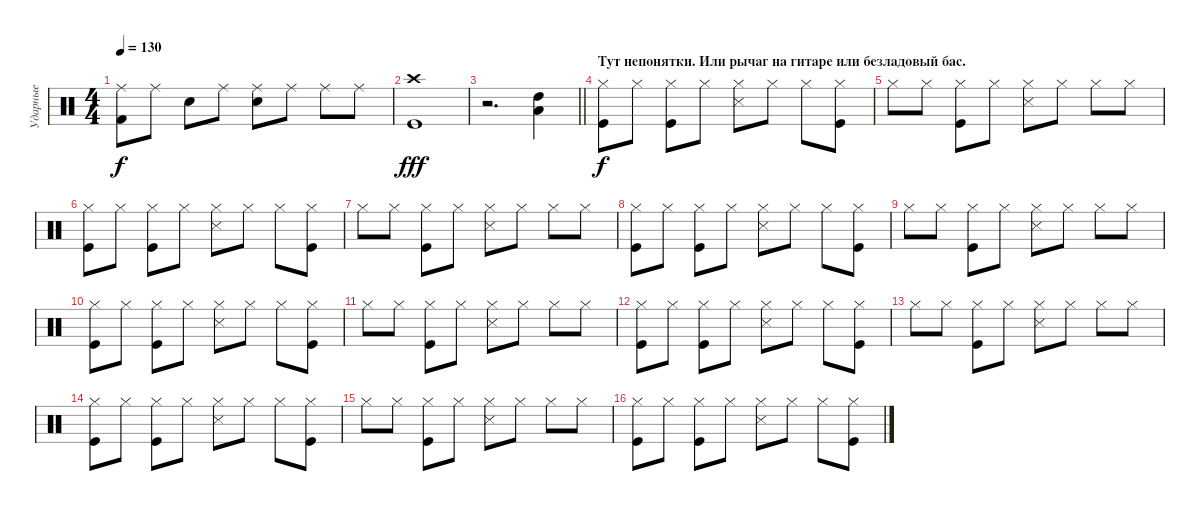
\track ("Ударные" "Ударные") {instrument percussion}
\staff {score}
\articulation defaults
\ts (4 4)
\tempo 130
\clef neutral
\ks c
("Ride (middle)" "Kick (hit) 2").8{dy f} "Ride (middle)".8 "Snare (hit)".8 "Ride (middle)".8 ("Ride (middle)" "Electric Snare (hit)").8 "Ride (middle)".8 "Ride (middle)".8 "Ride (middle)".8 |
("Crash high (hit)" "Kick (hit)").1{dy fff} |
\barLineRight lightlight
r.2{d} ("High Tom (hit)" "Low Tom (hit)").4 |
\section ("" "Тут непонятки. Или рычаг на гитаре или безладовый бас. ")
("Hi-Hat (closed)" "Kick (hit)").8{dy f} "Hi-Hat (closed)".8 ("Hi-Hat (closed)" "Kick (hit)").8 "Hi-Hat (closed)".8 ("Hi-Hat (closed)" "Snare (side stick) 3").8 "Hi-Hat (closed)".8 "Hi-Hat (closed)".8 ("Hi-Hat (closed)" "Kick (hit)").8 |
"Hi-Hat (closed)".8 "Hi-Hat (closed)".8 ("Hi-Hat (closed)" "Kick (hit)").8 "Hi-Hat (closed)".8 ("Hi-Hat (closed)" "Snare (side stick) 3").8 "Hi-Hat (closed)".8 "Hi-Hat (closed)".8 "Hi-Hat (closed)".8 |
("Hi-Hat (closed)" "Kick (hit)").8 "Hi-Hat (closed)".8 ("Hi-Hat (closed)" "Kick (hit)").8 "Hi-Hat (closed)".8 ("Hi-Hat (closed)" "Snare (side stick) 3").8 "Hi-Hat (closed)".8 "Hi-Hat (closed)".8 ("Hi-Hat (closed)" "Kick (hit)").8 |
"Hi-Hat (closed)".8 "Hi-Hat (closed)".8 ("Hi-Hat (closed)" "Kick (hit)").8 "Hi-Hat (closed)".8 ("Hi-Hat (closed)" "Snare (side stick) 3").8 "Hi-Hat (closed)".8 "Hi-Hat (closed)".8 "Hi-Hat (closed)".8 |
("Hi-Hat (closed)" "Kick (hit)").8 "Hi-Hat (closed)".8 ("Hi-Hat (closed)" "Kick (hit)").8 "Hi-Hat (closed)".8 ("Hi-Hat (closed)" "Snare (side stick) 3").8 "Hi-Hat (closed)".8 "Hi-Hat (closed)".8 ("Hi-Hat (closed)" "Kick (hit)").8 |
"Hi-Hat (closed)".8 "Hi-Hat (closed)".8 ("Hi-Hat (closed)" "Kick (hit)").8 "Hi-Hat (closed)".8 ("Hi-Hat (closed)" "Snare (side stick) 3").8 "Hi-Hat (closed)".8 "Hi-Hat (closed)".8 "Hi-Hat (closed)".8 |
("Hi-Hat (closed)" "Kick (hit)").8 "Hi-Hat (closed)".8 ("Hi-Hat (closed)" "Kick (hit)").8 "Hi-Hat (closed)".8 ("Hi-Hat (closed)" "Snare (side stick) 3").8 "Hi-Hat (closed)".8 "Hi-Hat (closed)".8 ("Hi-Hat (closed)" "Kick (hit)").8 |
"Hi-Hat (closed)".8 "Hi-Hat (closed)".8 ("Hi-Hat (closed)" "Kick (hit)").8 "Hi-Hat (closed)".8 ("Hi-Hat (closed)" "Snare (side stick) 3").8 "Hi-Hat (closed)".8 "Hi-Hat (closed)".8 "Hi-Hat (closed)".8 |
("Hi-Hat (closed)" "Kick (hit)").8 "Hi-Hat (closed)".8 ("Hi-Hat (closed)" "Kick (hit)").8 "Hi-Hat (closed)".8 ("Hi-Hat (closed)" "Snare (side stick) 3").8 "Hi-Hat (closed)".8 "Hi-Hat (closed)".8 ("Hi-Hat (closed)" "Kick (hit)").8 |
"Hi-Hat (closed)".8 "Hi-Hat (closed)".8 ("Hi-Hat (closed)" "Kick (hit)").8 "Hi-Hat (closed)".8 ("Hi-Hat (closed)" "Snare (side stick) 3").8 "Hi-Hat (closed)".8 "Hi-Hat (closed)".8 "Hi-Hat (closed)".8 |
("Hi-Hat (closed)" "Kick (hit)").8 "Hi-Hat (closed)".8 ("Hi-Hat (closed)" "Kick (hit)").8 "Hi-Hat (closed)".8 ("Hi-Hat (closed)" "Snare (side stick) 3").8 "Hi-Hat (closed)".8 "Hi-Hat (closed)".8 ("Hi-Hat (closed)" "Kick (hit)").8 |
"Hi-Hat (closed)".8 "Hi-Hat (closed)".8 ("Hi-Hat (closed)" "Kick (hit)").8 "Hi-Hat (closed)".8 ("Hi-Hat (closed)" "Snare (side stick) 3").8 "Hi-Hat (closed)".8 "Hi-Hat (closed)".8 "Hi-Hat (closed)".8 |
("Hi-Hat (closed)" "Kick (hit)").8 "Hi-Hat (closed)".8 ("Hi-Hat (closed)" "Kick (hit)").8 "Hi-Hat (closed)".8 ("Hi-Hat (closed)" "Snare (side stick) 3").8 "Hi-Hat (closed)".8 "Hi-Hat (closed)".8 ("Hi-Hat (closed)" "Kick (hit)").8
